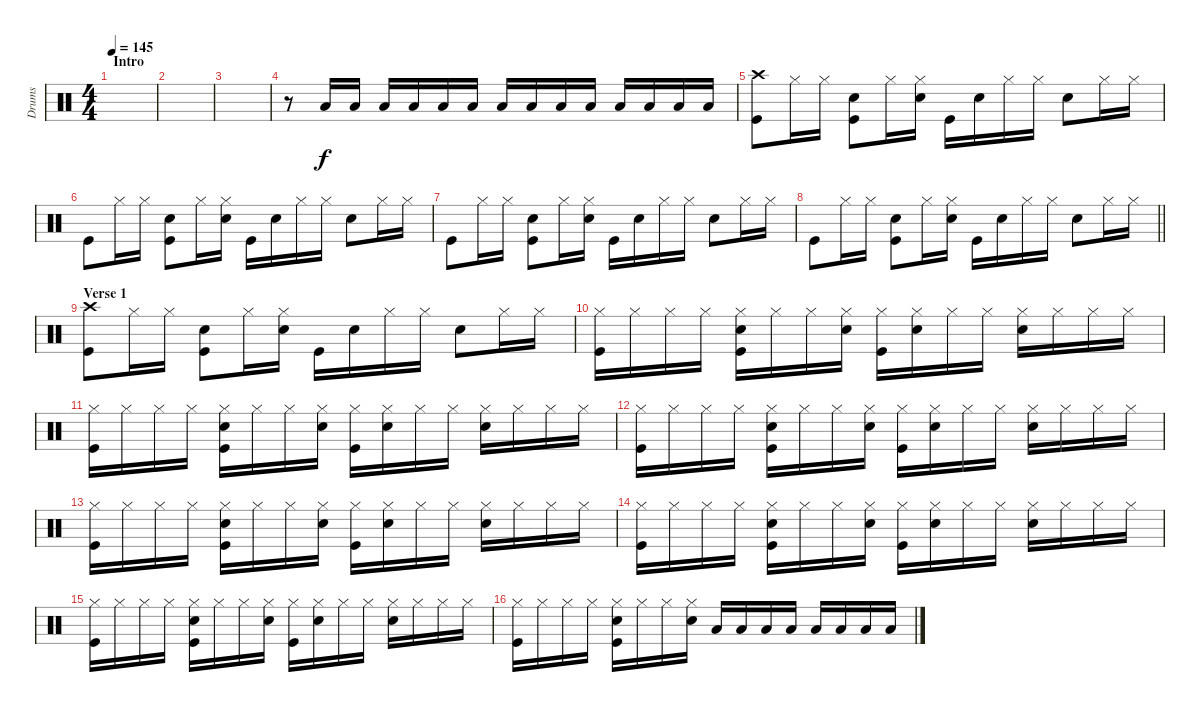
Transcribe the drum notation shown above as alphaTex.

\track ("Drums" "Drums") {instrument percussion}
\staff {score}
\articulation defaults
\ts (4 4)
\section ("" "Intro")
\tempo 145
\clef neutral
\ks c
|
|
|
r.8 "Low Tom (hit)".16 "Low Tom (hit)".16 "Low Tom (hit)".16 "Low Tom (hit)".16 "Low Tom (hit)".16 "Low Tom (hit)".16 "Low Tom (hit)".16 "Low Tom (hit)".16 "Low Tom (hit)".16 "Low Tom (hit)".16 "Low Tom (hit)".16 "Low Tom (hit)".16 "Low Tom (hit)".16 "Low Tom (hit)".16 |
("Crash high (hit)" "Kick (hit)").8 "Hi-Hat (closed)".16 "Hi-Hat (closed)".16 ("Electric Snare (hit)" "Kick (hit)").8 "Hi-Hat (closed)".16 ("Hi-Hat (closed)" "Electric Snare (hit)").16 "Kick (hit)".16 "Electric Snare (hit)".16 "Hi-Hat (closed)".16 "Hi-Hat (closed)".16 "Electric Snare (hit)".8 "Hi-Hat (closed)".16 "Hi-Hat (closed)".16 |
"Kick (hit)".8 "Hi-Hat (closed)".16 "Hi-Hat (closed)".16 ("Electric Snare (hit)" "Kick (hit)").8 "Hi-Hat (closed)".16 ("Hi-Hat (closed)" "Electric Snare (hit)").16 "Kick (hit)".16 "Electric Snare (hit)".16 "Hi-Hat (closed)".16 "Hi-Hat (closed)".16 "Electric Snare (hit)".8 "Hi-Hat (closed)".16 "Hi-Hat (closed)".16 |
"Kick (hit)".8 "Hi-Hat (closed)".16 "Hi-Hat (closed)".16 ("Electric Snare (hit)" "Kick (hit)").8 "Hi-Hat (closed)".16 ("Hi-Hat (closed)" "Electric Snare (hit)").16 "Kick (hit)".16 "Electric Snare (hit)".16 "Hi-Hat (closed)".16 "Hi-Hat (closed)".16 "Electric Snare (hit)".8 "Hi-Hat (closed)".16 "Hi-Hat (closed)".16 |
\barLineRight lightlight "Kick (hit)".8 "Hi-Hat (closed)".16 "Hi-Hat (closed)".16
("Electric Snare (hit)" "Kick (hit)").8 "Hi-Hat (closed)".16 ("Hi-Hat (closed)" "Electric Snare (hit)").16 "Kick (hit)".16 "Electric Snare (hit)".16 "Hi-Hat (closed)".16 "Hi-Hat (closed)".16 "Electric Snare (hit)".8 "Hi-Hat (closed)".16 "Hi-Hat (closed)".16 |
\section ("" "Verse 1")
("Crash high (hit)" "Kick (hit)").8 "Hi-Hat (closed)".16 "Hi-Hat (closed)".16 ("Electric Snare (hit)" "Kick (hit)").8 "Hi-Hat (closed)".16 ("Hi-Hat (closed)" "Electric Snare (hit)").16 "Kick (hit)".16 "Electric Snare (hit)".16 "Hi-Hat (closed)".16 "Hi-Hat (closed)".16 "Electric Snare (hit)".8 "Hi-Hat (closed)".16 "Hi-Hat (closed)".16 |
("Hi-Hat (closed)" "Kick (hit)").16 "Hi-Hat (closed)".16 "Hi-Hat (closed)".16 "Hi-Hat (closed)".16 ("Hi-Hat (closed)" "Electric Snare (hit)" "Kick (hit)").16 "Hi-Hat (closed)".16 "Hi-Hat (closed)".16 ("Hi-Hat (closed)" "Electric Snare (hit)").16 ("Hi-Hat (closed)" "Kick (hit)").16 ("Hi-Hat (closed)" "Electric Snare (hit)").16 "Hi-Hat (closed)".16 "Hi-Hat (closed)".16 ("Hi-Hat (closed)" "Electric Snare (hit)").16 "Hi-Hat (closed)".16 "Hi-Hat (closed)".16 "Hi-Hat (closed)".16 |
("Hi-Hat (closed)" "Kick (hit)").16 "Hi-Hat (closed)".16 "Hi-Hat (closed)".16 "Hi-Hat (closed)".16 ("Hi-Hat (closed)" "Electric Snare (hit)" "Kick (hit)").16 "Hi-Hat (closed)".16 "Hi-Hat (closed)".16 ("Hi-Hat (closed)" "Electric Snare (hit)").16 ("Hi-Hat (closed)" "Kick (hit)").16 ("Hi-Hat (closed)" "Electric Snare (hit)").16 "Hi-Hat (closed)".16 "Hi-Hat (closed)".16 ("Hi-Hat (closed)" "Electric Snare (hit)").16 "Hi-Hat (closed)".16 "Hi-Hat (closed)".16 "Hi-Hat (closed)".16 |
("Hi-Hat (closed)" "Kick (hit)").16 "Hi-Hat (closed)".16 "Hi-Hat (closed)".16 "Hi-Hat (closed)".16 ("Hi-Hat (closed)" "Electric Snare (hit)" "Kick (hit)").16 "Hi-Hat (closed)".16 "Hi-Hat (closed)".16 ("Hi-Hat (closed)" "Electric Snare (hit)").16 ("Hi-Hat (closed)" "Kick (hit)").16 ("Hi-Hat (closed)" "Electric Snare (hit)").16 "Hi-Hat (closed)".16 "Hi-Hat (closed)".16 ("Hi-Hat (closed)" "Electric Snare (hit)").16 "Hi-Hat (closed)".16 "Hi-Hat (closed)".16 "Hi-Hat (closed)".16 |
("Hi-Hat (closed)" "Kick (hit)").16 "Hi-Hat (closed)".16 "Hi-Hat (closed)".16 "Hi-Hat (closed)".16 ("Hi-Hat (closed)" "Electric Snare (hit)" "Kick (hit)").16 "Hi-Hat (closed)".16 "Hi-Hat (closed)".16 ("Hi-Hat (closed)" "Electric Snare (hit)").16 ("Hi-Hat (closed)" "Kick (hit)").16 ("Hi-Hat (closed)" "Electric Snare (hit)").16 "Hi-Hat (closed)".16 "Hi-Hat (closed)".16 ("Hi-Hat (closed)" "Electric Snare (hit)").16 "Hi-Hat (closed)".16 "Hi-Hat (closed)".16 "Hi-Hat (closed)".16 |
("Hi-Hat (closed)" "Kick (hit)").16 "Hi-Hat (closed)".16 "Hi-Hat (closed)".16 "Hi-Hat (closed)".16 ("Hi-Hat (closed)" "Electric Snare (hit)" "Kick (hit)").16 "Hi-Hat (closed)".16 "Hi-Hat (closed)".16 ("Hi-Hat (closed)" "Electric Snare (hit)").16 ("Hi-Hat (closed)" "Kick (hit)").16 ("Hi-Hat (closed)" "Electric Snare (hit)").16 "Hi-Hat (closed)".16 "Hi-Hat (closed)".16 ("Hi-Hat (closed)" "Electric Snare (hit)").16 "Hi-Hat (closed)".16 "Hi-Hat (closed)".16 "Hi-Hat (closed)".16 |
("Hi-Hat (closed)" "Kick (hit)").16 "Hi-Hat (closed)".16 "Hi-Hat (closed)".16 "Hi-Hat (closed)".16 ("Hi-Hat (closed)" "Electric Snare (hit)" "Kick (hit)").16 "Hi-Hat (closed)".16 "Hi-Hat (closed)".16 ("Hi-Hat (closed)" "Electric Snare (hit)").16 ("Hi-Hat (closed)" "Kick (hit)").16 ("Hi-Hat (closed)" "Electric Snare (hit)").16 "Hi-Hat (closed)".16 "Hi-Hat (closed)".16 ("Hi-Hat (closed)" "Electric Snare (hit)").16 "Hi-Hat (closed)".16 "Hi-Hat (closed)".16 "Hi-Hat (closed)".16 |
("Hi-Hat (closed)" "Kick (hit)").16 "Hi-Hat (closed)".16 "Hi-Hat (closed)".16 "Hi-Hat (closed)".16 ("Hi-Hat (closed)" "Electric Snare (hit)" "Kick (hit)").16 "Hi-Hat (closed)".16 "Hi-Hat (closed)".16 ("Hi-Hat (closed)" "Electric Snare (hit)").16 "Low Tom (hit)".16 "Low Tom (hit)".16 "Low Tom (hit)".16 "Low Tom (hit)".16 "Low Tom (hit)".16 "Low Tom (hit)".16 "Low Tom (hit)".16 "Low Tom (hit)".16
